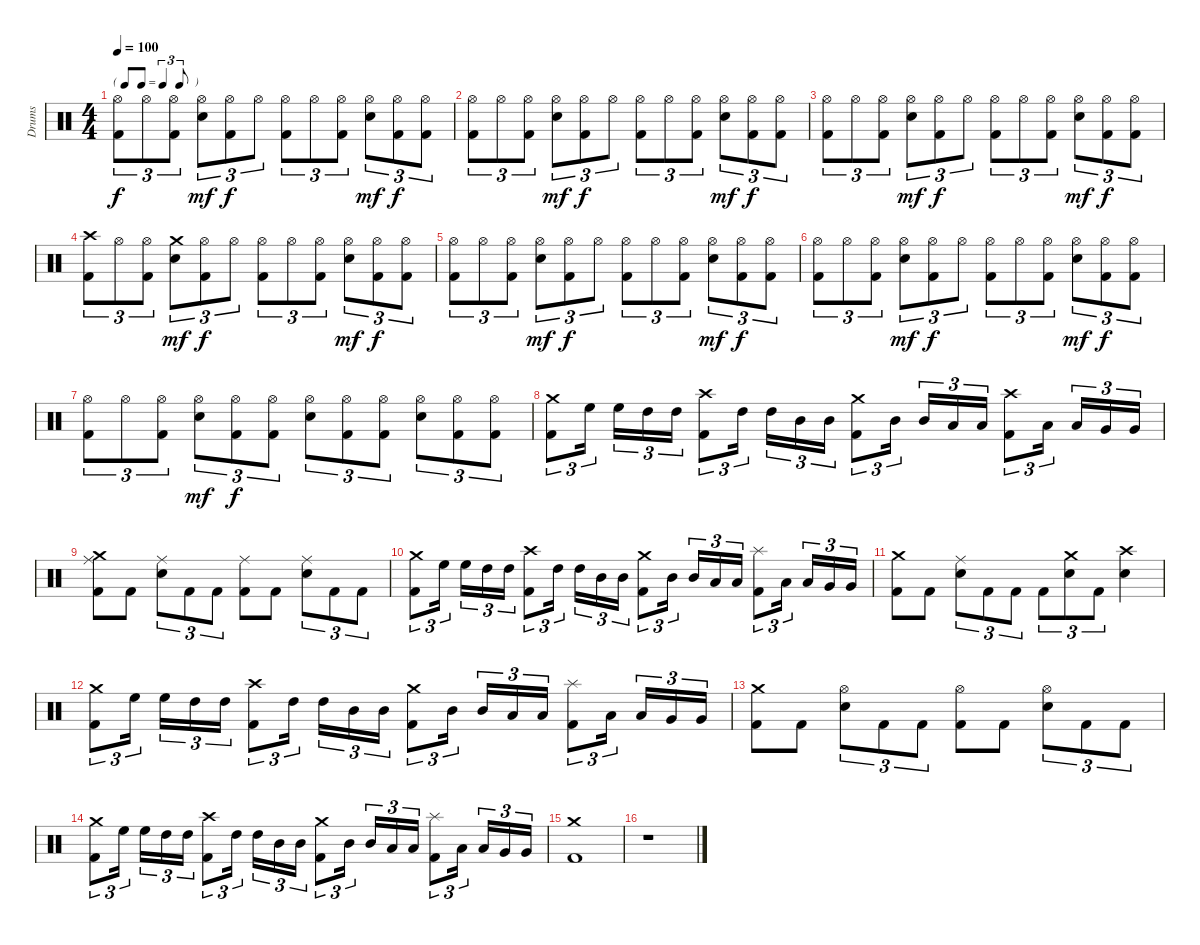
\track ("Drums" "Drums") {instrument percussion}
\staff {score}
\articulation defaults
\ts (4 4)
\tf triplet8th
\tempo 100
\clef neutral
\ks c
("Hi-Hat (open)" "Kick (hit) 2").8{tu (3 2) dy f} "Hi-Hat (open)".8{tu (3 2)} ("Hi-Hat (open)" "Kick (hit) 2").8{tu (3 2)} ("Hi-Hat (open)" "Snare (hit) 2").8{tu (3 2) dy mf} ("Hi-Hat (open)" "Kick (hit) 2").8{tu (3 2) dy f} "Hi-Hat (open)".8{tu (3 2)} ("Hi-Hat (open)" "Kick (hit) 2").8{tu (3 2)} "Hi-Hat (open)".8{tu (3 2)} ("Hi-Hat (open)" "Kick (hit) 2").8{tu (3 2)} ("Hi-Hat (open)" "Snare (hit) 2").8{tu (3 2) dy mf} ("Hi-Hat (open)" "Kick (hit) 2").8{tu (3 2) dy f} ("Hi-Hat (open)" "Kick (hit) 2").8{tu (3 2)} |
("Hi-Hat (open)" "Kick (hit) 2").8{tu (3 2)} "Hi-Hat (open)".8{tu (3 2)} ("Hi-Hat (open)" "Kick (hit) 2").8{tu (3 2)} ("Hi-Hat (open)" "Snare (hit) 2").8{tu (3 2) dy mf} ("Hi-Hat (open)" "Kick (hit) 2").8{tu (3 2) dy f} "Hi-Hat (open)".8{tu (3 2)} ("Hi-Hat (open)" "Kick (hit) 2").8{tu (3 2)} "Hi-Hat (open)".8{tu (3 2)} ("Hi-Hat (open)" "Kick (hit) 2").8{tu (3 2)} ("Hi-Hat (open)" "Snare (hit) 2").8{tu (3 2) dy mf} ("Hi-Hat (open)" "Kick (hit) 2").8{tu (3 2) dy f} ("Hi-Hat (open)" "Kick (hit) 2").8{tu (3 2)} |
("Hi-Hat (open)" "Kick (hit) 2").8{tu (3 2)} "Hi-Hat (open)".8{tu (3 2)} ("Hi-Hat (open)" "Kick (hit) 2").8{tu (3 2)} ("Hi-Hat (open)" "Snare (hit) 2").8{tu (3 2) dy mf} ("Hi-Hat (open)" "Kick (hit) 2").8{tu (3 2) dy f} "Hi-Hat (open)".8{tu (3 2)} ("Hi-Hat (open)" "Kick (hit) 2").8{tu (3 2)} "Hi-Hat (open)".8{tu (3 2)} ("Hi-Hat (open)" "Kick (hit) 2").8{tu (3 2)} ("Hi-Hat (open)" "Snare (hit) 2").8{tu (3 2) dy mf} ("Hi-Hat (open)" "Kick (hit) 2").8{tu (3 2) dy f} ("Hi-Hat (open)" "Kick (hit) 2").8{tu (3 2)} |
("Crash high (hit)" "Kick (hit) 2").8{tu (3 2)} "Hi-Hat (open)".8{tu (3 2)} ("Hi-Hat (open)" "Kick (hit) 2").8{tu (3 2)} ("Crash medium (hit)" "Snare (hit) 2").8{tu (3 2) dy mf} ("Hi-Hat (open)" "Kick (hit) 2").8{tu (3 2) dy f} "Hi-Hat (open)".8{tu (3 2)} ("Hi-Hat (open)" "Kick (hit) 2").8{tu (3 2)} "Hi-Hat (open)".8{tu (3 2)} ("Hi-Hat (open)" "Kick (hit) 2").8{tu (3 2)} ("Hi-Hat (open)" "Snare (hit) 2").8{tu (3 2) dy mf} ("Hi-Hat (open)" "Kick (hit) 2").8{tu (3 2) dy f} ("Hi-Hat (open)" "Kick (hit) 2").8{tu (3 2)} |
("Hi-Hat (open)" "Kick (hit) 2").8{tu (3 2)} "Hi-Hat (open)".8{tu (3 2)} ("Hi-Hat (open)" "Kick (hit) 2").8{tu (3 2)} ("Hi-Hat (open)" "Snare (hit) 2").8{tu (3 2) dy mf} ("Hi-Hat (open)" "Kick (hit) 2").8{tu (3 2) dy f} "Hi-Hat (open)".8{tu (3 2)} ("Hi-Hat (open)" "Kick (hit) 2").8{tu (3 2)} "Hi-Hat (open)".8{tu (3 2)} ("Hi-Hat (open)" "Kick (hit) 2").8{tu (3 2)} ("Hi-Hat (open)" "Snare (hit) 2").8{tu (3 2) dy mf} ("Hi-Hat (open)" "Kick (hit) 2").8{tu (3 2) dy f} ("Hi-Hat (open)" "Kick (hit) 2").8{tu (3 2)} |
("Hi-Hat (open)" "Kick (hit) 2").8{tu (3 2)} "Hi-Hat (open)".8{tu (3 2)} ("Hi-Hat (open)" "Kick (hit) 2").8{tu (3 2)} ("Hi-Hat (open)" "Snare (hit) 2").8{tu (3 2) dy mf} ("Hi-Hat (open)" "Kick (hit) 2").8{tu (3 2) dy f} "Hi-Hat (open)".8{tu (3 2)} ("Hi-Hat (open)" "Kick (hit) 2").8{tu (3 2)} "Hi-Hat (open)".8{tu (3 2)} ("Hi-Hat (open)" "Kick (hit) 2").8{tu (3 2)} ("Hi-Hat (open)" "Snare (hit) 2").8{tu (3 2) dy mf} ("Hi-Hat (open)" "Kick (hit) 2").8{tu (3 2) dy f} ("Hi-Hat (open)" "Kick (hit) 2").8{tu (3 2)} |
("Hi-Hat (open)" "Kick (hit) 2").8{tu (3 2)} "Hi-Hat (open)".8{tu (3 2)} ("Hi-Hat (open)" "Kick (hit) 2").8{tu (3 2)} ("Hi-Hat (open)" "Snare (hit) 2").8{tu (3 2) dy mf} ("Hi-Hat (open)" "Kick (hit) 2").8{tu (3 2) dy f} ("Hi-Hat (open)" "Kick (hit) 2").8{tu (3 2)} ("Hi-Hat (open)" "Snare (hit) 2").8{tu (3 2)} ("Hi-Hat (open)" "Kick (hit) 2").8{tu (3 2)} ("Hi-Hat (open)" "Kick (hit) 2").8{tu (3 2)} ("Hi-Hat (open)" "Snare (hit) 2").8{tu (3 2)} ("Hi-Hat (open)" "Kick (hit) 2").8{tu (3 2)} ("Hi-Hat (open)" "Kick (hit) 2").8{tu (3 2)} |
("Crash medium (hit)" "Kick (hit) 2").8{tu (3 2)} "High Floor Tom (hit)".16{tu (3 2) beam splitsecondary} "High Floor Tom (hit)".16{tu (3 2)} "High Tom (hit)".16{tu (3 2)} "High Tom (hit)".16{tu (3 2)} ("Crash high (hit)" "Kick (hit) 2").8{tu (3 2)} "High Tom (hit)".16{tu (3 2) beam splitsecondary} "High Tom (hit)".16{tu (3 2)} "Mid Tom (hit)".16{tu (3 2)} "Mid Tom (hit)".16{tu (3 2)} ("Crash medium (hit)" "Kick (hit) 2").8{tu (3 2)} "Mid Tom (hit)".16{tu (3 2) beam splitsecondary} "Mid Tom (hit)".16{tu (3 2)} "Low Tom (hit)".16{tu (3 2)} "Low Tom (hit)".16{tu (3 2)} ("Crash high (hit)" "Kick (hit) 2").8{tu (3 2)} "Low Tom (hit)".16{tu (3 2) beam splitsecondary} "Low Tom (hit)".16{tu (3 2)} "Very Low Tom (hit)".16{tu (3 2)} "Very Low Tom (hit)".16{tu (3 2)} |
("Crash medium (hit)" "Ride (middle)" "Kick (hit) 2").8 "Kick (hit) 2".8 ("Ride (middle)" "Snare (hit) 2").8{tu (3 2)} "Kick (hit) 2".8{tu (3 2)} "Kick (hit) 2".8{tu (3 2)} ("Ride (middle)" "Kick (hit) 2").8 "Kick (hit) 2".8 ("Ride (middle)" "Snare (hit) 2").8{tu (3 2)} "Kick (hit) 2".8{tu (3 2)} "Kick (hit) 2".8{tu (3 2)} |
("Crash medium (hit)" "Kick (hit) 2").8{tu (3 2)} "High Floor Tom (hit)".16{tu (3 2) beam splitsecondary} "High Floor Tom (hit)".16{tu (3 2)} "High Tom (hit)".16{tu (3 2)} "High Tom (hit)".16{tu (3 2)} ("Crash high (hit)" "Kick (hit) 2").8{tu (3 2)} "High Tom (hit)".16{tu (3 2) beam splitsecondary} "High Tom (hit)".16{tu (3 2)} "Mid Tom (hit)".16{tu (3 2)} "Mid Tom (hit)".16{tu (3 2)} ("Crash medium (hit)" "Kick (hit) 2").8{tu (3 2)} "Mid Tom (hit)".16{tu (3 2) beam splitsecondary} "Mid Tom (hit)".16{tu (3 2)} "Low Tom (hit)".16{tu (3 2)} "Low Tom (hit)".16{tu (3 2)} ("Splash (hit)" "Kick (hit) 2").8{tu (3 2)} "Low Tom (hit)".16{tu (3 2) beam splitsecondary} "Low Tom (hit)".16{tu (3 2)} "Very Low Tom (hit)".16{tu (3 2)} "Very Low Tom (hit)".16{tu (3 2)} |
("Crash medium (hit)" "Kick (hit) 2").8 "Kick (hit) 2".8 ("Ride (middle)" "Snare (hit) 2").8{tu (3 2)} "Kick (hit) 2".8{tu (3 2)} "Kick (hit) 2".8{tu (3 2)} "Kick (hit) 2".8{tu (3 2)} ("Crash medium (hit)" "Snare (hit) 2").8{tu (3 2)} "Kick (hit) 2".8{tu (3 2)} ("Crash high (hit)" "Snare (hit) 2").4 |
("Crash medium (hit)" "Kick (hit) 2").8{tu (3 2)} "High Floor Tom (hit)".16{tu (3 2) beam splitsecondary} "High Floor Tom (hit)".16{tu (3 2)} "High Tom (hit)".16{tu (3 2)} "High Tom (hit)".16{tu (3 2)} ("Crash high (hit)" "Kick (hit) 2").8{tu (3 2)} "High Tom (hit)".16{tu (3 2) beam splitsecondary} "High Tom (hit)".16{tu (3 2)} "Mid Tom (hit)".16{tu (3 2)} "Mid Tom (hit)".16{tu (3 2)} ("Crash medium (hit)" "Kick (hit) 2").8{tu (3 2)} "Mid Tom (hit)".16{tu (3 2) beam splitsecondary} "Mid Tom (hit)".16{tu (3 2)} "Low Tom (hit)".16{tu (3 2)} "Low Tom (hit)".16{tu (3 2)} ("Splash (hit)" "Kick (hit) 2").8{tu (3 2)} "Low Tom (hit)".16{tu (3 2) beam splitsecondary} "Low Tom (hit)".16{tu (3 2)} "Very Low Tom (hit)".16{tu (3 2)} "Very Low Tom (hit)".16{tu (3 2)} |
("Crash medium (hit)" "Kick (hit) 2").8 "Kick (hit) 2".8 ("Hi-Hat (open)" "Snare (hit) 2").8{tu (3 2)} "Kick (hit) 2".8{tu (3 2)} "Kick (hit) 2".8{tu (3 2)} ("Hi-Hat (open)" "Kick (hit) 2").8 "Kick (hit) 2".8 ("Hi-Hat (open)" "Snare (hit) 2").8{tu (3 2)} "Kick (hit) 2".8{tu (3 2)} "Kick (hit) 2".8{tu (3 2)} |
("Crash medium (hit)" "Kick (hit) 2").8{tu (3 2)} "High Floor Tom (hit)".16{tu (3 2) beam splitsecondary} "High Floor Tom (hit)".16{tu (3 2)} "High Tom (hit)".16{tu (3 2)} "High Tom (hit)".16{tu (3 2)} ("Crash high (hit)" "Kick (hit) 2").8{tu (3 2)} "High Tom (hit)".16{tu (3 2) beam splitsecondary} "High Tom (hit)".16{tu (3 2)} "Mid Tom (hit)".16{tu (3 2)} "Mid Tom (hit)".16{tu (3 2)} ("Crash medium (hit)" "Kick (hit) 2").8{tu (3 2)} "Mid Tom (hit)".16{tu (3 2) beam splitsecondary} "Mid Tom (hit)".16{tu (3 2)} "Low Tom (hit)".16{tu (3 2)} "Low Tom (hit)".16{tu (3 2)} ("Splash (hit)" "Kick (hit) 2").8{tu (3 2)} "Low Tom (hit)".16{tu (3 2) beam splitsecondary} "Low Tom (hit)".16{tu (3 2)} "Very Low Tom (hit)".16{tu (3 2)} "Very Low Tom (hit)".16{tu (3 2)} |
("Crash medium (hit)" "Kick (hit) 2").1 |
r.1
